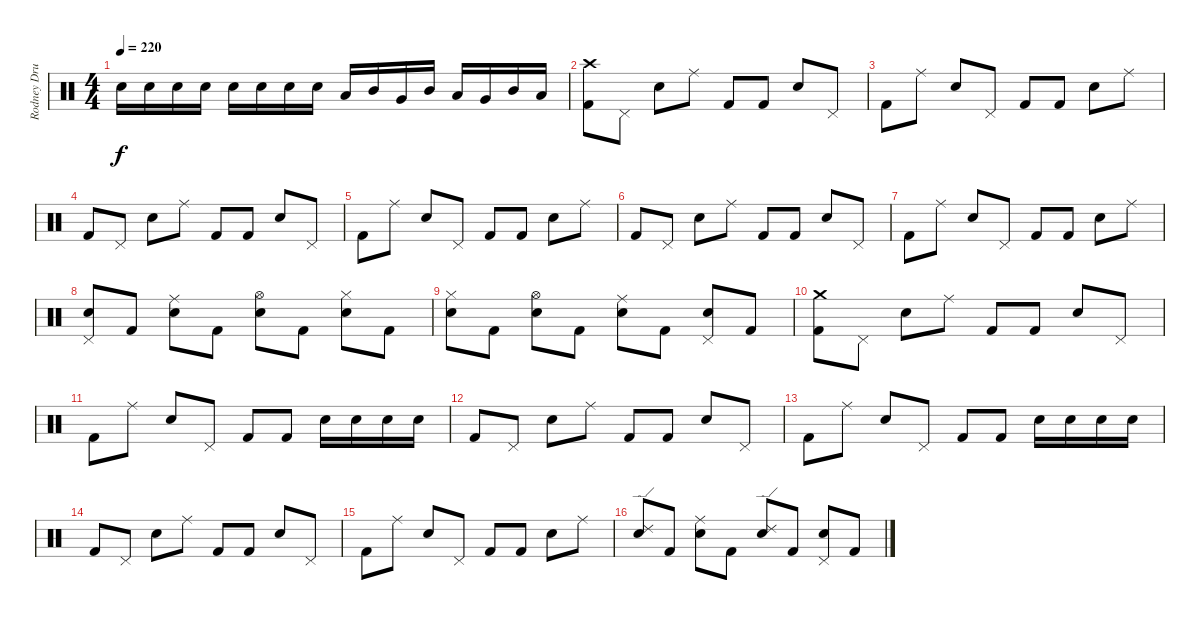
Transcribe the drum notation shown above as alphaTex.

\track ("Rodney Drums" "Rodney Dru") {instrument percussion}
\staff {score}
\articulation defaults
\ts (4 4)
\tempo 220
\clef neutral
\ks c "Electric Snare (hit)".16{dy f} "Electric Snare (hit)".16 "Electric Snare (hit)".16 "Electric Snare (hit)".16 "Electric Snare (hit)".16 "Electric Snare (hit)".16 "Electric Snare (hit)".16 "Electric Snare (hit)".16 "Low Tom (hit)".16 "Mid Tom (hit)".16 "Very Low Tom (hit)".16 "Mid Tom (hit)".16 "Low Tom (hit)".16 "Very Low Tom (hit)".16 "Mid Tom (hit)".16 "Low Tom (hit)".16
|
("Crash high (hit)" "Kick (hit) 2").8 "Pedal Hi-Hat (hit)".8 "Electric Snare (hit)".8 "Ride (middle)".8 "Kick (hit) 2".8 "Kick (hit) 2".8 "Electric Snare (hit)".8 "Pedal Hi-Hat (hit)".8 |
"Kick (hit) 2".8 "Ride (middle)".8 "Electric Snare (hit)".8 "Pedal Hi-Hat (hit)".8 "Kick (hit) 2".8 "Kick (hit) 2".8 "Electric Snare (hit)".8 "Ride (middle)".8 |
"Kick (hit) 2".8 "Pedal Hi-Hat (hit)".8 "Electric Snare (hit)".8 "Ride (middle)".8 "Kick (hit) 2".8 "Kick (hit) 2".8 "Electric Snare (hit)".8 "Pedal Hi-Hat (hit)".8 |
"Kick (hit) 2".8 "Ride (middle)".8 "Electric Snare (hit)".8 "Pedal Hi-Hat (hit)".8 "Kick (hit) 2".8 "Kick (hit) 2".8 "Electric Snare (hit)".8 "Ride (middle)".8 |
"Kick (hit) 2".8 "Pedal Hi-Hat (hit)".8 "Electric Snare (hit)".8 "Ride (middle)".8 "Kick (hit) 2".8 "Kick (hit) 2".8 "Electric Snare (hit)".8 "Pedal Hi-Hat (hit)".8 |
"Kick (hit) 2".8 "Ride (middle)".8 "Electric Snare (hit)".8 "Pedal Hi-Hat (hit)".8 "Kick (hit) 2".8 "Kick (hit) 2".8 "Electric Snare (hit)".8 "Ride (middle)".8 |
("Pedal Hi-Hat (hit)" "Electric Snare (hit)").8 "Kick (hit) 2".8 ("Ride (middle)" "Electric Snare (hit)").8 "Kick (hit) 2".8 ("Hi-Hat (open)" "Electric Snare (hit)").8 "Kick (hit) 2".8 ("Hi-Hat (closed)" "Electric Snare (hit)").8 "Kick (hit) 2".8 |
("Hi-Hat (closed)" "Electric Snare (hit)").8 "Kick (hit) 2".8 ("Hi-Hat (open)" "Electric Snare (hit)").8 "Kick (hit) 2".8 ("Ride (middle)" "Electric Snare (hit)").8 "Kick (hit) 2".8 ("Pedal Hi-Hat (hit)" "Electric Snare (hit)").8 "Kick (hit) 2".8 |
("Crash medium (hit)" "Kick (hit) 2").8 "Pedal Hi-Hat (hit)".8 "Electric Snare (hit)".8 "Ride (middle)".8 "Kick (hit) 2".8 "Kick (hit) 2".8 "Electric Snare (hit)".8 "Pedal Hi-Hat (hit)".8 |
"Kick (hit) 2".8 "Ride (middle)".8 "Electric Snare (hit)".8 "Pedal Hi-Hat (hit)".8 "Kick (hit) 2".8 "Kick (hit) 2".8 "Electric Snare (hit)".16 "Electric Snare (hit)".16 "Electric Snare (hit)".16 "Electric Snare (hit)".16 |
"Kick (hit) 2".8 "Pedal Hi-Hat (hit)".8 "Electric Snare (hit)".8 "Ride (middle)".8 "Kick (hit) 2".8 "Kick (hit) 2".8 "Electric Snare (hit)".8 "Pedal Hi-Hat (hit)".8 |
"Kick (hit) 2".8 "Ride (middle)".8 "Electric Snare (hit)".8 "Pedal Hi-Hat (hit)".8 "Kick (hit) 2".8 "Kick (hit) 2".8 "Electric Snare (hit)".16 "Electric Snare (hit)".16 "Electric Snare (hit)".16 "Electric Snare (hit)".16 |
"Kick (hit) 2".8 "Pedal Hi-Hat (hit)".8 "Electric Snare (hit)".8 "Ride (middle)".8 "Kick (hit) 2".8 "Kick (hit) 2".8 "Electric Snare (hit)".8 "Pedal Hi-Hat (hit)".8 |
"Kick (hit) 2".8 "Ride (middle)".8 "Electric Snare (hit)".8 "Pedal Hi-Hat (hit)".8 "Kick (hit) 2".8 "Kick (hit) 2".8 "Electric Snare (hit)".8 "Ride (middle)".8 |
("Ride (edge) 2" "Electric Snare (hit)").8 "Kick (hit) 2".8 ("Ride (middle)" "Electric Snare (hit)").8 "Kick (hit) 2".8 ("Ride (edge) 2" "Electric Snare (hit)").8 "Kick (hit) 2".8 ("Pedal Hi-Hat (hit)" "Electric Snare (hit)").8 "Kick (hit) 2".8
